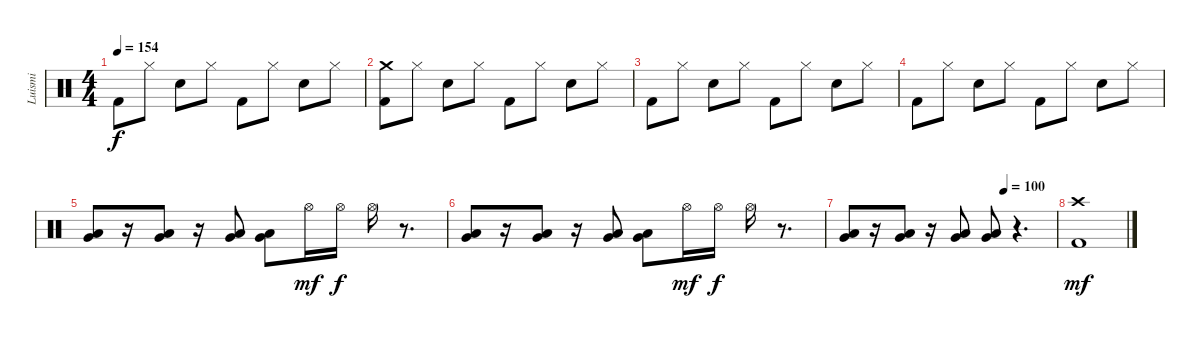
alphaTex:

\track ("Luismi" "Luismi") {instrument percussion}
\staff {score}
\articulation defaults
\ts (4 4)
\tempo 154
\clef neutral
\ks c "Kick (hit) 2".8{dy f} "Hi-Hat (closed)".8 "Snare (hit) 2".8 "Hi-Hat (closed)".8 "Kick (hit) 2".8 "Hi-Hat (closed)".8 "Snare (hit) 2".8 "Hi-Hat (closed)".8
|
("Crash medium (hit)" "Kick (hit) 2").8 "Hi-Hat (closed)".8 "Snare (hit) 2".8 "Hi-Hat (closed)".8 "Kick (hit) 2".8 "Hi-Hat (closed)".8 "Snare (hit) 2".8 "Hi-Hat (closed)".8 |
"Kick (hit) 2".8 "Hi-Hat (closed)".8 "Snare (hit) 2".8 "Hi-Hat (closed)".8 "Kick (hit) 2".8 "Hi-Hat (closed)".8 "Snare (hit) 2".8 "Hi-Hat (closed)".8 |
"Kick (hit) 2".8 "Hi-Hat (closed)".8 "Snare (hit) 2".8 "Hi-Hat (closed)".8 "Kick (hit) 2".8 "Hi-Hat (closed)".8 "Snare (hit) 2".8 "Hi-Hat (closed)".8 |
("Low Tom (hit)" "Very Low Tom (hit)").8 r.16 ("Low Tom (hit)" "Very Low Tom (hit)").8 r.16 ("Low Tom (hit)" "Very Low Tom (hit)").8 ("Low Tom (hit)" "Very Low Tom (hit)").8 "Hi-Hat (open)".16{dy mf} "Hi-Hat (open)".16{dy f} "Hi-Hat (open)".16 r.8{d} |
("Low Tom (hit)" "Very Low Tom (hit)").8 r.16 ("Low Tom (hit)" "Very Low Tom (hit)").8 r.16 ("Low Tom (hit)" "Very Low Tom (hit)").8 ("Low Tom (hit)" "Very Low Tom (hit)").8 "Hi-Hat (open)".16{dy mf} "Hi-Hat (open)".16{dy f} "Hi-Hat (open)".16 r.8{d} |
\tempo (100 0.75)
("Low Tom (hit)" "Very Low Tom (hit)").8 r.16 ("Low Tom (hit)" "Very Low Tom (hit)").8 r.16 ("Low Tom (hit)" "Very Low Tom (hit)").8 ("Low Tom (hit)" "Very Low Tom (hit)").8 r.4{d} |
("Crash high (hit)" "Kick (hit) 2").1{dy mf}
